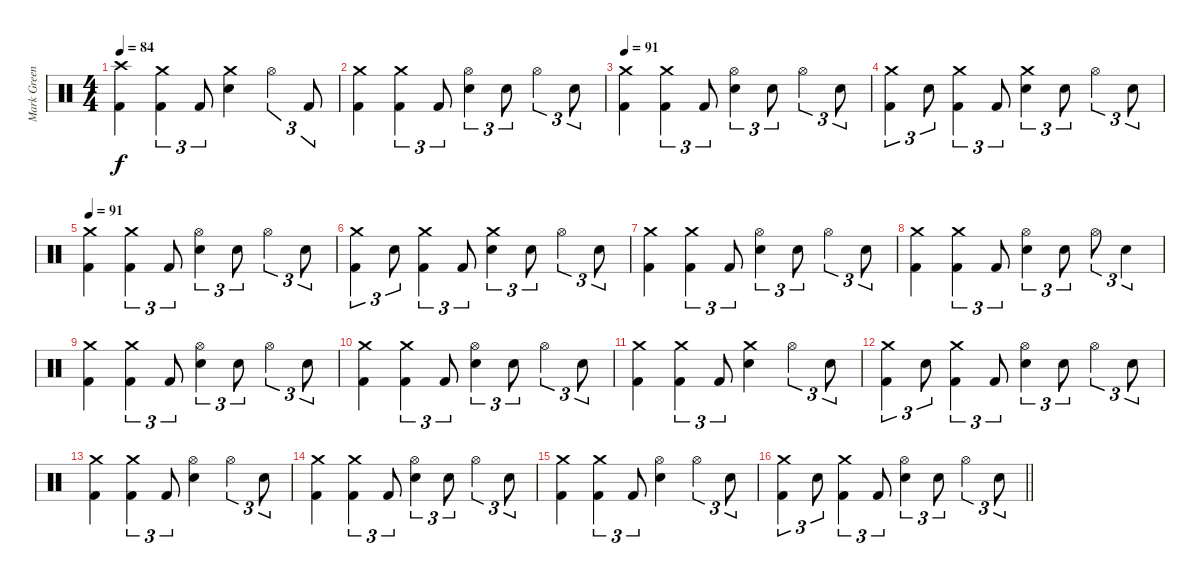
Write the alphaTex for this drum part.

\track ("Mark Greening" "Mark Green") {instrument percussion}
\staff {score}
\articulation defaults
\ts (4 4)
\section ("" "")
\tempo 84
\clef neutral
\ks c
("Crash high (hit)" "Kick (hit) 2").4{dy f} ("Crash medium (hit)" "Kick (hit) 2").4{tu (3 2)} "Kick (hit) 2".8{tu (3 2)} ("Crash medium (hit)" "Electric Snare (hit)").4 "Hi-Hat (open)".4{tu (3 2)} "Kick (hit) 2".8{tu (3 2)} |
("Crash medium (hit)" "Kick (hit) 2").4 ("Crash medium (hit)" "Kick (hit) 2").4{tu (3 2)} "Kick (hit) 2".8{tu (3 2)} ("Hi-Hat (open)" "Electric Snare (hit)").4{tu (3 2)} "Electric Snare (hit)".8{tu (3 2)} "Hi-Hat (open)".4{tu (3 2)} "Electric Snare (hit)".8{tu (3 2)} |
\tempo 91
("Crash medium (hit)" "Kick (hit) 2").4 ("Crash medium (hit)" "Kick (hit) 2").4{tu (3 2)} "Kick (hit) 2".8{tu (3 2)} ("Hi-Hat (open)" "Electric Snare (hit)").4{tu (3 2)} "Electric Snare (hit)".8{tu (3 2)} "Hi-Hat (open)".4{tu (3 2)} "Electric Snare (hit)".8{tu (3 2)} |
("Crash medium (hit)" "Kick (hit) 2").4{tu (3 2)} "Electric Snare (hit)".8{tu (3 2)} ("Crash medium (hit)" "Kick (hit) 2").4{tu (3 2)} "Kick (hit) 2".8{tu (3 2)} ("Crash medium (hit)" "Electric Snare (hit)").4{tu (3 2)} "Electric Snare (hit)".8{tu (3 2)} "Hi-Hat (open)".4{tu (3 2)} "Electric Snare (hit)".8{tu (3 2)} |
\tempo 91
("Crash medium (hit)" "Kick (hit) 2").4 ("Crash medium (hit)" "Kick (hit) 2").4{tu (3 2)} "Kick (hit) 2".8{tu (3 2)} ("Hi-Hat (open)" "Electric Snare (hit)").4{tu (3 2)} "Electric Snare (hit)".8{tu (3 2)} "Hi-Hat (open)".4{tu (3 2)} "Electric Snare (hit)".8{tu (3 2)} |
("Crash medium (hit)" "Kick (hit) 2").4{tu (3 2)} "Electric Snare (hit)".8{tu (3 2)} ("Crash medium (hit)" "Kick (hit) 2").4{tu (3 2)} "Kick (hit) 2".8{tu (3 2)} ("Crash medium (hit)" "Electric Snare (hit)").4{tu (3 2)} "Electric Snare (hit)".8{tu (3 2)} "Hi-Hat (open)".4{tu (3 2)} "Electric Snare (hit)".8{tu (3 2)} |
("Crash medium (hit)" "Kick (hit) 2").4 ("Crash medium (hit)" "Kick (hit) 2").4{tu (3 2)} "Kick (hit) 2".8{tu (3 2)} ("Hi-Hat (open)" "Electric Snare (hit)").4{tu (3 2)} "Electric Snare (hit)".8{tu (3 2)} "Hi-Hat (open)".4{tu (3 2)} "Electric Snare (hit)".8{tu (3 2)} |
("Crash medium (hit)" "Kick (hit) 2").4 ("Crash medium (hit)" "Kick (hit) 2").4{tu (3 2)} "Kick (hit) 2".8{tu (3 2)} ("Hi-Hat (open)" "Electric Snare (hit)").4{tu (3 2)} "Electric Snare (hit)".8{tu (3 2)} "Hi-Hat (open)".8{tu (3 2)} "Electric Snare (hit)".4{tu (3 2)} |
("Crash medium (hit)" "Kick (hit) 2").4 ("Crash medium (hit)" "Kick (hit) 2").4{tu (3 2)} "Kick (hit) 2".8{tu (3 2)} ("Hi-Hat (open)" "Electric Snare (hit)").4{tu (3 2)} "Electric Snare (hit)".8{tu (3 2)} "Hi-Hat (open)".4{tu (3 2)} "Electric Snare (hit)".8{tu (3 2)} |
("Crash medium (hit)" "Kick (hit) 2").4 ("Crash medium (hit)" "Kick (hit) 2").4{tu (3 2)} "Kick (hit) 2".8{tu (3 2)} ("Hi-Hat (open)" "Electric Snare (hit)").4{tu (3 2)} "Electric Snare (hit)".8{tu (3 2)} "Hi-Hat (open)".4{tu (3 2)} "Electric Snare (hit)".8{tu (3 2)} |
("Crash medium (hit)" "Kick (hit) 2").4 ("Crash medium (hit)" "Kick (hit) 2").4{tu (3 2)} "Kick (hit) 2".8{tu (3 2)} ("Crash medium (hit)" "Electric Snare (hit)").4 "Hi-Hat (open)".4{tu (3 2)} "Electric Snare (hit)".8{tu (3 2)} |
("Crash medium (hit)" "Kick (hit) 2").4{tu (3 2)} "Electric Snare (hit)".8{tu (3 2)} ("Crash medium (hit)" "Kick (hit) 2").4{tu (3 2)} "Kick (hit) 2".8{tu (3 2)} ("Hi-Hat (open)" "Electric Snare (hit)").4{tu (3 2)} "Electric Snare (hit)".8{tu (3 2)} "Hi-Hat (open)".4{tu (3 2)} "Electric Snare (hit)".8{tu (3 2)} |
("Crash medium (hit)" "Kick (hit) 2").4 ("Crash medium (hit)" "Kick (hit) 2").4{tu (3 2)} "Kick (hit) 2".8{tu (3 2)} ("Hi-Hat (open)" "Electric Snare (hit)").4 "Hi-Hat (open)".4{tu (3 2)} "Electric Snare (hit)".8{tu (3 2)} |
("Crash medium (hit)" "Kick (hit) 2").4 ("Crash medium (hit)" "Kick (hit) 2").4{tu (3 2)} "Kick (hit) 2".8{tu (3 2)} ("Hi-Hat (open)" "Electric Snare (hit)").4{tu (3 2)} "Electric Snare (hit)".8{tu (3 2)} "Hi-Hat (open)".4{tu (3 2)} "Electric Snare (hit)".8{tu (3 2)} |
("Crash medium (hit)" "Kick (hit) 2").4 ("Crash medium (hit)" "Kick (hit) 2").4{tu (3 2)} "Kick (hit) 2".8{tu (3 2)} ("Hi-Hat (open)" "Electric Snare (hit)").4 "Hi-Hat (open)".4{tu (3 2)} "Electric Snare (hit)".8{tu (3 2)} |
\barLineRight lightlight
("Crash medium (hit)" "Kick (hit) 2").4{tu (3 2)} "Electric Snare (hit)".8{tu (3 2)} ("Crash medium (hit)" "Kick (hit) 2").4{tu (3 2)} "Kick (hit) 2".8{tu (3 2)} ("Hi-Hat (open)" "Electric Snare (hit)").4{tu (3 2)} "Electric Snare (hit)".8{tu (3 2)} "Hi-Hat (open)".4{tu (3 2)} "Electric Snare (hit)".8{tu (3 2)}
